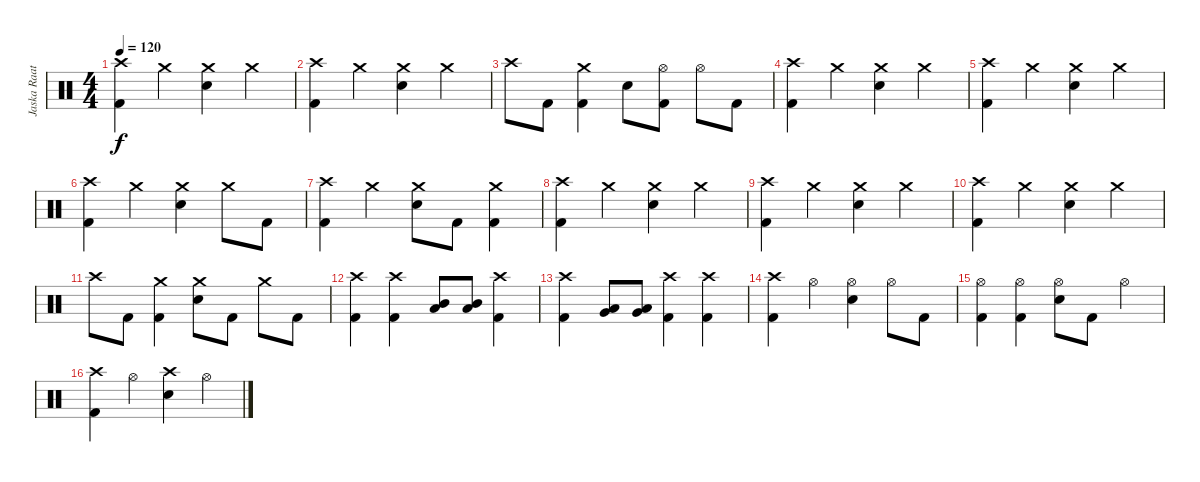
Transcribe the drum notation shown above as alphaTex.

\track ("Jaska Raatikainen" "Jaska Raat") {instrument percussion}
\staff {score}
\articulation defaults
\ts (4 4)
\tempo 120
\clef neutral
\ks c
("Crash high (hit)" "Kick (hit) 2").4{dy f} "Crash medium (hit)".4 ("Crash medium (hit)" "Snare (hit) 2").4 "Crash medium (hit)".4 |
("Crash high (hit)" "Kick (hit) 2").4 "Crash medium (hit)".4 ("Crash medium (hit)" "Snare (hit) 2").4 "Crash medium (hit)".4 |
"Crash high (hit)".8 "Kick (hit) 2".8 ("Crash medium (hit)" "Kick (hit) 2").4 "Snare (hit) 2".8 ("Hi-Hat (open)" "Kick (hit) 2").8 "Hi-Hat (open)".8 "Kick (hit) 2".8 |
("Crash high (hit)" "Kick (hit) 2").4 "Crash medium (hit)".4 ("Crash medium (hit)" "Snare (hit) 2").4 "Crash medium (hit)".4 |
("Crash high (hit)" "Kick (hit) 2").4 "Crash medium (hit)".4 ("Crash medium (hit)" "Snare (hit) 2").4 "Crash medium (hit)".4 |
("Crash high (hit)" "Kick (hit) 2").4 "Crash medium (hit)".4 ("Crash medium (hit)" "Snare (hit) 2").4 "Crash medium (hit)".8 "Kick (hit) 2".8 |
("Crash high (hit)" "Kick (hit) 2").4 "Crash medium (hit)".4 ("Crash medium (hit)" "Snare (hit) 2").8 "Kick (hit) 2".8 ("Crash medium (hit)" "Kick (hit) 2").4 |
("Crash high (hit)" "Kick (hit) 2").4 "Crash medium (hit)".4 ("Crash medium (hit)" "Snare (hit) 2").4 "Crash medium (hit)".4 |
("Crash high (hit)" "Kick (hit) 2").4 "Crash medium (hit)".4 ("Crash medium (hit)" "Snare (hit) 2").4 "Crash medium (hit)".4 |
("Crash high (hit)" "Kick (hit) 2").4 "Crash medium (hit)".4 ("Crash medium (hit)" "Snare (hit) 2").4 "Crash medium (hit)".4 |
"Crash high (hit)".8 "Kick (hit) 2".8 ("Crash medium (hit)" "Kick (hit) 2").4 ("Crash medium (hit)" "Snare (hit) 2").8 "Kick (hit) 2".8 "Crash medium (hit)".8 "Kick (hit) 2".8 |
("Crash high (hit)" "Kick (hit) 2").4 ("Crash high (hit)" "Kick (hit) 2").4 ("Mid Tom (hit)" "Low Tom (hit)").8 ("Mid Tom (hit)" "Low Tom (hit)").8 ("Crash high (hit)" "Kick (hit) 2").4 |
("Crash high (hit)" "Kick (hit) 2").4 ("Low Tom (hit)" "Very Low Tom (hit)").8 ("Low Tom (hit)" "Very Low Tom (hit)").8 ("Crash high (hit)" "Kick (hit) 2").4 ("Crash high (hit)" "Kick (hit) 2").4 |
("Crash high (hit)" "Kick (hit) 2").4 "Hi-Hat (open)".4 ("Hi-Hat (open)" "Snare (hit) 2").4 "Hi-Hat (open)".8 "Kick (hit) 2".8 |
("Hi-Hat (open)" "Kick (hit) 2").4 ("Hi-Hat (open)" "Kick (hit) 2").4 ("Hi-Hat (open)" "Snare (hit) 2").8 "Kick (hit) 2".8 "Hi-Hat (open)".4 |
("Crash high (hit)" "Kick (hit) 2").4 "Hi-Hat (open)".4 ("Crash high (hit)" "Snare (hit) 2").4 "Hi-Hat (open)".4
